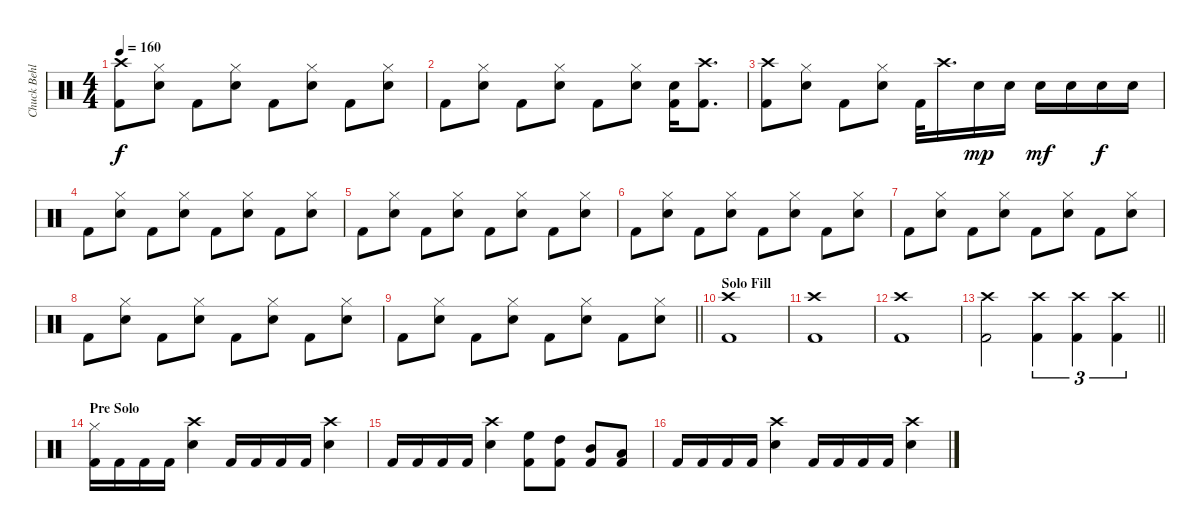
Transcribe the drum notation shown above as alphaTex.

\track ("Chuck Behler" "Chuck Behl") {instrument percussion}
\staff {score}
\articulation defaults
\ts (4 4)
\tempo 160
\clef neutral
\ks c
("Crash high (hit)" "Kick (hit) 2").8{dy f} ("Hi-Hat (closed)" "Snare (hit) 2").8 "Kick (hit) 2".8 ("Hi-Hat (closed)" "Snare (hit) 2").8 "Kick (hit) 2".8 ("Hi-Hat (closed)" "Snare (hit) 2").8 "Kick (hit) 2".8 ("Hi-Hat (closed)" "Snare (hit) 2").8 |
"Kick (hit) 2".8 ("Hi-Hat (closed)" "Snare (hit) 2").8 "Kick (hit) 2".8 ("Hi-Hat (closed)" "Snare (hit) 2").8 "Kick (hit) 2".8 ("Hi-Hat (closed)" "Snare (hit) 2").8 ("Snare (hit) 2" "Kick (hit) 2").16 ("Crash high (hit)" "Kick (hit) 2").8{d} |
("Crash high (hit)" "Kick (hit) 2").8 ("Hi-Hat (closed)" "Snare (hit) 2").8 "Kick (hit) 2".8 ("Hi-Hat (closed)" "Snare (hit) 2").8 "Kick (hit) 2".32 "Crash high (hit)".16{d} "Snare (hit) 2".16{dy mp} "Snare (hit) 2".16 "Snare (hit) 2".16{dy mf} "Snare (hit) 2".16 "Snare (hit) 2".16{dy f} "Snare (hit) 2".16 |
"Kick (hit) 2".8 ("Hi-Hat (closed)" "Snare (hit) 2").8 "Kick (hit) 2".8 ("Hi-Hat (closed)" "Snare (hit) 2").8 "Kick (hit) 2".8 ("Hi-Hat (closed)" "Snare (hit) 2").8 "Kick (hit) 2".8 ("Hi-Hat (closed)" "Snare (hit) 2").8 |
"Kick (hit) 2".8 ("Hi-Hat (closed)" "Snare (hit) 2").8 "Kick (hit) 2".8 ("Hi-Hat (closed)" "Snare (hit) 2").8 "Kick (hit) 2".8 ("Hi-Hat (closed)" "Snare (hit) 2").8 "Kick (hit) 2".8 ("Hi-Hat (closed)" "Snare (hit) 2").8 |
"Kick (hit) 2".8 ("Hi-Hat (closed)" "Snare (hit) 2").8 "Kick (hit) 2".8 ("Hi-Hat (closed)" "Snare (hit) 2").8 "Kick (hit) 2".8 ("Hi-Hat (closed)" "Snare (hit) 2").8 "Kick (hit) 2".8 ("Hi-Hat (closed)" "Snare (hit) 2").8 |
"Kick (hit) 2".8 ("Hi-Hat (closed)" "Snare (hit) 2").8 "Kick (hit) 2".8 ("Hi-Hat (closed)" "Snare (hit) 2").8 "Kick (hit) 2".8 ("Hi-Hat (closed)" "Snare (hit) 2").8 "Kick (hit) 2".8 ("Hi-Hat (closed)" "Snare (hit) 2").8 |
"Kick (hit) 2".8 ("Hi-Hat (closed)" "Snare (hit) 2").8 "Kick (hit) 2".8 ("Hi-Hat (closed)" "Snare (hit) 2").8 "Kick (hit) 2".8 ("Hi-Hat (closed)" "Snare (hit) 2").8 "Kick (hit) 2".8 ("Hi-Hat (closed)" "Snare (hit) 2").8 |
\barLineRight lightlight "Kick (hit) 2".8
("Hi-Hat (closed)" "Snare (hit) 2").8 "Kick (hit) 2".8 ("Hi-Hat (closed)" "Snare (hit) 2").8 "Kick (hit) 2".8 ("Hi-Hat (closed)" "Snare (hit) 2").8 "Kick (hit) 2".8 ("Hi-Hat (closed)" "Snare (hit) 2").8 |
\section ("" "Solo Fill")
("Crash high (hit)" "Kick (hit) 2").1 |
("Crash high (hit)" "Kick (hit) 2").1 |
("Crash high (hit)" "Kick (hit) 2").1 |
\barLineRight lightlight
("Crash high (hit)" "Kick (hit) 2").2 ("Crash high (hit)" "Kick (hit) 2").4{tu (3 2)} ("Crash high (hit)" "Kick (hit) 2").4{tu (3 2)} ("Crash high (hit)" "Kick (hit) 2").4{tu (3 2)} |
\section ("" "Pre Solo")
("Hi-Hat (closed)" "Kick (hit) 2").16 "Kick (hit) 2".16 "Kick (hit) 2".16 "Kick (hit) 2".16 ("Crash high (hit)" "Snare (hit) 2").4 "Kick (hit) 2".16 "Kick (hit) 2".16 "Kick (hit) 2".16 "Kick (hit) 2".16 ("Crash high (hit)" "Snare (hit) 2").4 |
"Kick (hit) 2".16 "Kick (hit) 2".16 "Kick (hit) 2".16 "Kick (hit) 2".16 ("Crash high (hit)" "Snare (hit) 2").4 ("High Floor Tom (hit)" "Kick (hit) 2").8 ("High Tom (hit)" "Kick (hit) 2").8 ("Mid Tom (hit)" "Kick (hit) 2").8 ("Low Tom (hit)" "Kick (hit) 2").8 |
"Kick (hit) 2".16 "Kick (hit) 2".16 "Kick (hit) 2".16 "Kick (hit) 2".16 ("Crash high (hit)" "Snare (hit) 2").4 "Kick (hit) 2".16 "Kick (hit) 2".16 "Kick (hit) 2".16 "Kick (hit) 2".16 ("Crash high (hit)" "Snare (hit) 2").4
